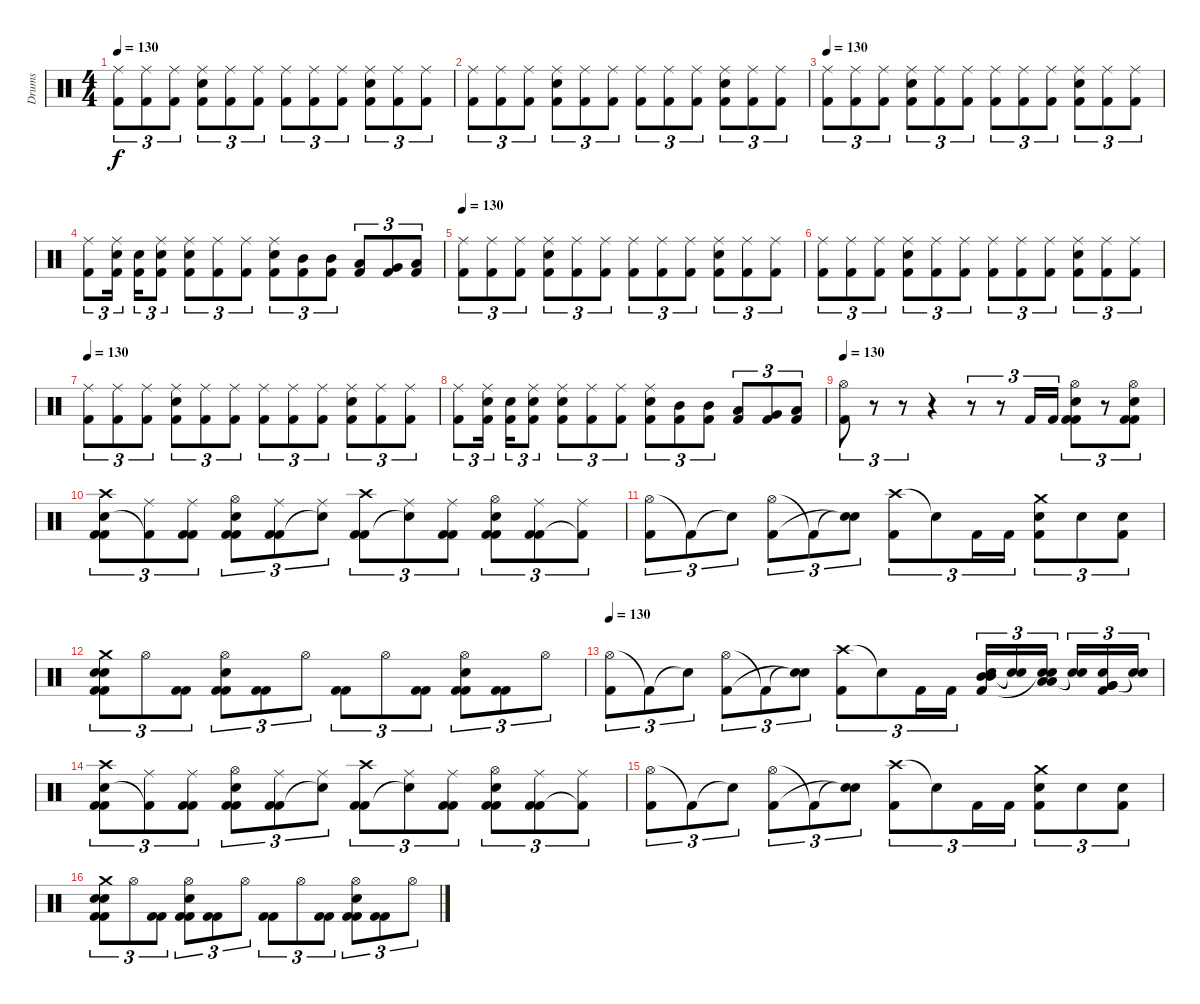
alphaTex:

\track ("Drums" "Drums") {instrument percussion}
\staff {score}
\articulation defaults
\ts (4 4)
\tempo 130
\clef neutral
\ks c
("Ride (middle)" "Kick (hit) 2").8{tu (3 2) dy f} ("Ride (middle)" "Kick (hit) 2").8{tu (3 2)} ("Ride (middle)" "Kick (hit) 2").8{tu (3 2)} ("Ride (middle)" "Snare (hit) 2" "Kick (hit) 2").8{tu (3 2)} ("Ride (middle)" "Kick (hit) 2").8{tu (3 2)} ("Ride (middle)" "Kick (hit) 2").8{tu (3 2)} ("Ride (middle)" "Kick (hit) 2").8{tu (3 2)} ("Ride (middle)" "Kick (hit) 2").8{tu (3 2)} ("Ride (middle)" "Kick (hit) 2").8{tu (3 2)} ("Ride (middle)" "Snare (hit) 2" "Kick (hit) 2").8{tu (3 2)} ("Ride (middle)" "Kick (hit) 2").8{tu (3 2)} ("Ride (middle)" "Kick (hit) 2").8{tu (3 2)} |
("Ride (middle)" "Kick (hit) 2").8{tu (3 2)} ("Ride (middle)" "Kick (hit) 2").8{tu (3 2)} ("Ride (middle)" "Kick (hit) 2").8{tu (3 2)} ("Ride (middle)" "Snare (hit) 2" "Kick (hit) 2").8{tu (3 2)} ("Ride (middle)" "Kick (hit) 2").8{tu (3 2)} ("Ride (middle)" "Kick (hit) 2").8{tu (3 2)} ("Ride (middle)" "Kick (hit) 2").8{tu (3 2)} ("Ride (middle)" "Kick (hit) 2").8{tu (3 2)} ("Ride (middle)" "Kick (hit) 2").8{tu (3 2)} ("Ride (middle)" "Snare (hit) 2" "Kick (hit) 2").8{tu (3 2)} ("Ride (middle)" "Kick (hit) 2").8{tu (3 2)} ("Ride (middle)" "Kick (hit) 2").8{tu (3 2)} |
\tempo 130
("Ride (middle)" "Kick (hit) 2").8{tu (3 2)} ("Ride (middle)" "Kick (hit) 2").8{tu (3 2)} ("Ride (middle)" "Kick (hit) 2").8{tu (3 2)} ("Ride (middle)" "Snare (hit) 2" "Kick (hit) 2").8{tu (3 2)} ("Ride (middle)" "Kick (hit) 2").8{tu (3 2)} ("Ride (middle)" "Kick (hit) 2").8{tu (3 2)} ("Ride (middle)" "Kick (hit) 2").8{tu (3 2)} ("Ride (middle)" "Kick (hit) 2").8{tu (3 2)} ("Ride (middle)" "Kick (hit) 2").8{tu (3 2)} ("Ride (middle)" "Snare (hit) 2" "Kick (hit) 2").8{tu (3 2)} ("Ride (middle)" "Kick (hit) 2").8{tu (3 2)} ("Ride (middle)" "Kick (hit) 2").8{tu (3 2)} |
("Ride (middle)" "Kick (hit) 2").8{tu (3 2)} ("Ride (middle)" "Snare (hit) 2" "Kick (hit) 2").16{tu (3 2)} ("Snare (hit) 2" "Kick (hit) 2").16{tu (3 2)} ("Ride (middle)" "Snare (hit) 2" "Kick (hit) 2").8{tu (3 2)} ("Ride (middle)" "Snare (hit) 2" "Kick (hit) 2").8{tu (3 2)} ("Ride (middle)" "Kick (hit) 2").8{tu (3 2)} ("Ride (middle)" "Kick (hit) 2").8{tu (3 2)} ("Ride (middle)" "Snare (hit) 2" "Kick (hit) 2").8{tu (3 2)} ("Mid Tom (hit)" "Kick (hit) 2").8{tu (3 2)} ("Mid Tom (hit)" "Kick (hit) 2").8{tu (3 2)} ("Low Tom (hit)" "Kick (hit) 2").8{tu (3 2)} ("Very Low Tom (hit)" "Kick (hit) 2").8{tu (3 2)} ("Low Floor Tom (hit)" "Kick (hit) 2").8{tu (3 2)} |
\tempo 130
("Ride (middle)" "Kick (hit) 2").8{tu (3 2)} ("Ride (middle)" "Kick (hit) 2").8{tu (3 2)} ("Ride (middle)" "Kick (hit) 2").8{tu (3 2)} ("Ride (middle)" "Snare (hit) 2" "Kick (hit) 2").8{tu (3 2)} ("Ride (middle)" "Kick (hit) 2").8{tu (3 2)} ("Ride (middle)" "Kick (hit) 2").8{tu (3 2)} ("Ride (middle)" "Kick (hit) 2").8{tu (3 2)} ("Ride (middle)" "Kick (hit) 2").8{tu (3 2)} ("Ride (middle)" "Kick (hit) 2").8{tu (3 2)} ("Ride (middle)" "Snare (hit) 2" "Kick (hit) 2").8{tu (3 2)} ("Ride (middle)" "Kick (hit) 2").8{tu (3 2)} ("Ride (middle)" "Kick (hit) 2").8{tu (3 2)} |
("Ride (middle)" "Kick (hit) 2").8{tu (3 2)} ("Ride (middle)" "Kick (hit) 2").8{tu (3 2)} ("Ride (middle)" "Kick (hit) 2").8{tu (3 2)} ("Ride (middle)" "Snare (hit) 2" "Kick (hit) 2").8{tu (3 2)} ("Ride (middle)" "Kick (hit) 2").8{tu (3 2)} ("Ride (middle)" "Kick (hit) 2").8{tu (3 2)} ("Ride (middle)" "Kick (hit) 2").8{tu (3 2)} ("Ride (middle)" "Kick (hit) 2").8{tu (3 2)} ("Ride (middle)" "Kick (hit) 2").8{tu (3 2)} ("Ride (middle)" "Snare (hit) 2" "Kick (hit) 2").8{tu (3 2)} ("Ride (middle)" "Kick (hit) 2").8{tu (3 2)} ("Ride (middle)" "Kick (hit) 2").8{tu (3 2)} |
\tempo 130
("Ride (middle)" "Kick (hit) 2").8{tu (3 2)} ("Ride (middle)" "Kick (hit) 2").8{tu (3 2)} ("Ride (middle)" "Kick (hit) 2").8{tu (3 2)} ("Ride (middle)" "Snare (hit) 2" "Kick (hit) 2").8{tu (3 2)} ("Ride (middle)" "Kick (hit) 2").8{tu (3 2)} ("Ride (middle)" "Kick (hit) 2").8{tu (3 2)} ("Ride (middle)" "Kick (hit) 2").8{tu (3 2)} ("Ride (middle)" "Kick (hit) 2").8{tu (3 2)} ("Ride (middle)" "Kick (hit) 2").8{tu (3 2)} ("Ride (middle)" "Snare (hit) 2" "Kick (hit) 2").8{tu (3 2)} ("Ride (middle)" "Kick (hit) 2").8{tu (3 2)} ("Ride (middle)" "Kick (hit) 2").8{tu (3 2)} |
("Ride (middle)" "Kick (hit) 2").8{tu (3 2)} ("Ride (middle)" "Snare (hit) 2" "Kick (hit) 2").16{tu (3 2)} ("Snare (hit) 2" "Kick (hit) 2").16{tu (3 2)} ("Ride (middle)" "Snare (hit) 2" "Kick (hit) 2").8{tu (3 2)} ("Ride (middle)" "Snare (hit) 2" "Kick (hit) 2").8{tu (3 2)} ("Ride (middle)" "Kick (hit) 2").8{tu (3 2)} ("Ride (middle)" "Kick (hit) 2").8{tu (3 2)} ("Ride (middle)" "Snare (hit) 2" "Kick (hit) 2").8{tu (3 2)} ("Mid Tom (hit)" "Kick (hit) 2").8{tu (3 2)} ("Mid Tom (hit)" "Kick (hit) 2").8{tu (3 2)} ("Low Tom (hit)" "Kick (hit) 2").8{tu (3 2)} ("Very Low Tom (hit)" "Kick (hit) 2").8{tu (3 2)} ("Low Floor Tom (hit)" "Kick (hit) 2").8{tu (3 2)} |
\tempo 130
("Hi-Hat (open)" "Kick (hit) 2").8{tu (3 2)} r.8{tu (3 2)} r.8{tu (3 2)} r.4 r.8{tu (3 2)} r.8{tu (3 2)} "Kick (hit) 2".16{tu (3 2)} "Kick (hit) 2".16{tu (3 2)} ("Hi-Hat (open)" "Snare (hit) 2" "Kick (hit) 2" "Kick (hit) 2").8{tu (3 2)} r.8{tu (3 2)} ("Hi-Hat (open)" "Snare (hit) 2" "Kick (hit) 2" "Kick (hit) 2").8{tu (3 2)} |
("Crash high (hit)" "Snare (hit) 2" "Kick (hit) 2" "Kick (hit) 2").8{tu (3 2)} ("Ride (middle)" "Kick (hit) 2"{t}).8{tu (3 2)} ("Ride (middle)" "Kick (hit) 2" "Kick (hit) 2").8{tu (3 2)} ("Hi-Hat (open)" "Snare (hit) 2" "Kick (hit) 2" "Kick (hit) 2").8{tu (3 2)} ("Ride (middle)" "Kick (hit) 2" "Kick (hit) 2").8{tu (3 2)} ("Ride (middle)" "Snare (hit)"{t}).8{tu (3 2)} ("Crash high (hit)" "Kick (hit) 2" "Kick (hit) 2").8{tu (3 2)} ("Ride (middle)" "Snare (hit)"{t}).8{tu (3 2)} ("Ride (middle)" "Kick (hit) 2" "Kick (hit) 2").8{tu (3 2)} ("Hi-Hat (open)" "Snare (hit) 2" "Kick (hit) 2" "Kick (hit) 2").8{tu (3 2)} ("Ride (middle)" "Kick (hit) 2" "Kick (hit) 2").8{tu (3 2)} ("Ride (middle)" "Kick (hit) 2"{t}).8{tu (3 2)} |
("Hi-Hat (open)" "Kick (hit) 2").8{tu (3 2)} "Kick (hit) 2"{t}.8{tu (3 2)} "Snare (hit)"{t}.8{tu (3 2)} ("Hi-Hat (open)" "Kick (hit) 2").8{tu (3 2)} "Kick (hit) 2"{t}.8{tu (3 2)} ("Snare (hit)"{t} "Snare (hit)"{t}).8{tu (3 2)} ("Crash high (hit)" "Kick (hit) 2").8{tu (3 2)} "Snare (hit)"{t}.8{tu (3 2)} "Kick (hit) 2".16{tu (3 2)} "Kick (hit) 2".16{tu (3 2)} ("Crash medium (hit)" "Snare (hit) 2" "Kick (hit) 2").8{tu (3 2)} "Snare (hit) 2".8{tu (3 2)} ("Snare (hit) 2" "Kick (hit) 2").8{tu (3 2)} |
("Crash medium (hit)" "Snare (hit) 2" "Snare (hit) 2" "Kick (hit) 2" "Kick (hit) 2").8{tu (3 2)} "Hi-Hat (open)".8{tu (3 2)} ("Kick (hit) 2" "Kick (hit) 2").8{tu (3 2)} ("Hi-Hat (open)" "Snare (hit) 2" "Kick (hit) 2" "Kick (hit) 2").8{tu (3 2)} ("Kick (hit) 2" "Kick (hit) 2").8{tu (3 2)} "Hi-Hat (open)".8{tu (3 2)} ("Kick (hit) 2" "Kick (hit) 2").8{tu (3 2)} "Hi-Hat (open)".8{tu (3 2)} ("Kick (hit) 2" "Kick (hit) 2").8{tu (3 2)} ("Hi-Hat (open)" "Snare (hit) 2" "Kick (hit) 2" "Kick (hit) 2").8{tu (3 2)} ("Kick (hit) 2" "Kick (hit) 2").8{tu (3 2)} "Hi-Hat (open)".8{tu (3 2)} |
\tempo 130
("Hi-Hat (open)" "Kick (hit) 2").8{tu (3 2)} "Kick (hit) 2"{t}.8{tu (3 2)} "Snare (hit)"{t}.8{tu (3 2)} ("Hi-Hat (open)" "Kick (hit) 2").8{tu (3 2)} "Kick (hit) 2"{t}.8{tu (3 2)} ("Snare (hit)"{t} "Snare (hit)"{t}).8{tu (3 2)} ("Crash high (hit)" "Kick (hit) 2").8{tu (3 2)} "Snare (hit)"{t}.8{tu (3 2)} "Kick (hit) 2".16{tu (3 2)} "Kick (hit) 2".16{tu (3 2)} ("Mid Tom (hit)" "Mid Tom (hit)" "Snare (hit) 2" "Kick (hit) 2").16{tu (3 2)} ("Snare (hit)"{t} "Snare (hit)"{t}).16{tu (3 2)} ("Low Tom (hit)" "Low Tom (hit)" "Snare (hit) 2" "Snare (hit)"{t}).16{tu (3 2)} ("Snare (hit)"{t} "Snare (hit)"{t}).16{tu (3 2)} ("Very Low Tom (hit)" "Very Low Tom (hit)" "Snare (hit) 2" "Kick (hit) 2").16{tu (3 2)} ("Snare (hit)"{t} "Snare (hit)"{t}).16{tu (3 2)} |
("Crash high (hit)" "Snare (hit) 2" "Kick (hit) 2" "Kick (hit) 2").8{tu (3 2)} ("Ride (middle)" "Kick (hit) 2"{t}).8{tu (3 2)} ("Ride (middle)" "Kick (hit) 2" "Kick (hit) 2").8{tu (3 2)} ("Hi-Hat (open)" "Snare (hit) 2" "Kick (hit) 2" "Kick (hit) 2").8{tu (3 2)} ("Ride (middle)" "Kick (hit) 2" "Kick (hit) 2").8{tu (3 2)} ("Ride (middle)" "Snare (hit)"{t}).8{tu (3 2)} ("Crash high (hit)" "Kick (hit) 2" "Kick (hit) 2").8{tu (3 2)} ("Ride (middle)" "Snare (hit)"{t}).8{tu (3 2)} ("Ride (middle)" "Kick (hit) 2" "Kick (hit) 2").8{tu (3 2)} ("Hi-Hat (open)" "Snare (hit) 2" "Kick (hit) 2" "Kick (hit) 2").8{tu (3 2)} ("Ride (middle)" "Kick (hit) 2" "Kick (hit) 2").8{tu (3 2)} ("Ride (middle)" "Kick (hit) 2"{t}).8{tu (3 2)} |
("Hi-Hat (open)" "Kick (hit) 2").8{tu (3 2)} "Kick (hit) 2"{t}.8{tu (3 2)} "Snare (hit)"{t}.8{tu (3 2)} ("Hi-Hat (open)" "Kick (hit) 2").8{tu (3 2)} "Kick (hit) 2"{t}.8{tu (3 2)} ("Snare (hit)"{t} "Snare (hit)"{t}).8{tu (3 2)} ("Crash high (hit)" "Kick (hit) 2").8{tu (3 2)} "Snare (hit)"{t}.8{tu (3 2)} "Kick (hit) 2".16{tu (3 2)} "Kick (hit) 2".16{tu (3 2)} ("Crash medium (hit)" "Snare (hit) 2" "Kick (hit) 2").8{tu (3 2)} "Snare (hit) 2".8{tu (3 2)} ("Snare (hit) 2" "Kick (hit) 2").8{tu (3 2)} |
("Crash medium (hit)" "Snare (hit) 2" "Snare (hit) 2" "Kick (hit) 2" "Kick (hit) 2").8{tu (3 2)} "Hi-Hat (open)".8{tu (3 2)} ("Kick (hit) 2" "Kick (hit) 2").8{tu (3 2)} ("Hi-Hat (open)" "Snare (hit) 2" "Kick (hit) 2" "Kick (hit) 2").8{tu (3 2)} ("Kick (hit) 2" "Kick (hit) 2").8{tu (3 2)} "Hi-Hat (open)".8{tu (3 2)} ("Kick (hit) 2" "Kick (hit) 2").8{tu (3 2)} "Hi-Hat (open)".8{tu (3 2)} ("Kick (hit) 2" "Kick (hit) 2").8{tu (3 2)} ("Hi-Hat (open)" "Snare (hit) 2" "Kick (hit) 2" "Kick (hit) 2").8{tu (3 2)} ("Kick (hit) 2" "Kick (hit) 2").8{tu (3 2)} "Hi-Hat (open)".8{tu (3 2)}
